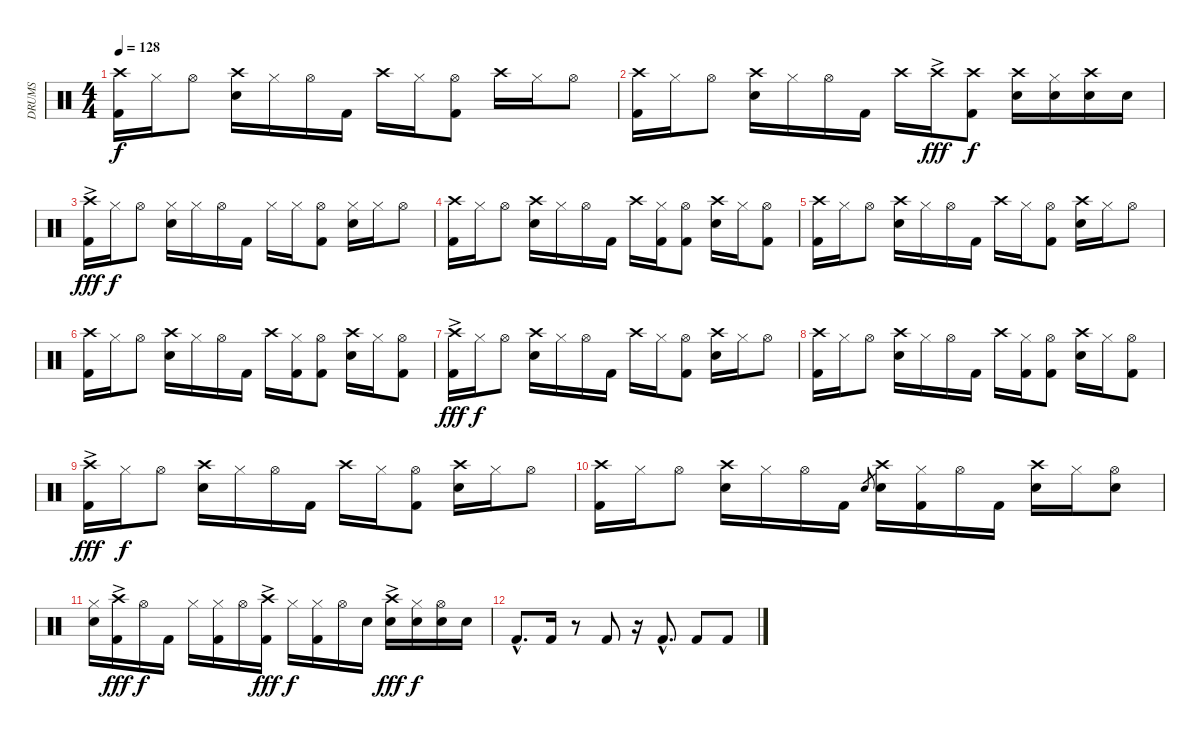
\track ("DRUMS" "DRUMS") {instrument percussion}
\staff {score}
\articulation defaults
\ts (4 4)
\tempo 128
\clef neutral
\ks c
("Crash high (hit)" "Kick (hit) 2").16{dy f} "Hi-Hat (closed)".16 "Hi-Hat (open)".8 ("Crash high (hit)" "Snare (hit) 2").16 "Hi-Hat (closed)".16 "Hi-Hat (open)".16 "Kick (hit) 2".16 "Crash high (hit)".16 "Hi-Hat (closed)".16 ("Hi-Hat (open)" "Kick (hit) 2").8 "Crash high (hit)".16 "Hi-Hat (closed)".16 "Hi-Hat (open)".8 |
("Crash high (hit)" "Kick (hit) 2").16 "Hi-Hat (closed)".16 "Hi-Hat (open)".8 ("Crash high (hit)" "Snare (hit) 2").16 "Hi-Hat (closed)".16 "Hi-Hat (open)".16 "Kick (hit) 2".16 "Crash high (hit)".16 "Crash high (hit)"{ac}.16{dy fff} ("Crash high (hit)" "Kick (hit) 2").8{dy f} ("Crash high (hit)" "Snare (hit) 2").16 ("Hi-Hat (closed)" "Snare (hit) 2").16 ("Crash high (hit)" "Snare (hit) 2").16 "Snare (hit) 2".16 |
("Crash high (hit)"{ac} "Kick (hit) 2").16{dy fff} "Hi-Hat (closed)".16{dy f} "Hi-Hat (open)".8 ("Hi-Hat (closed)" "Snare (hit) 2").16 "Hi-Hat (closed)".16 "Hi-Hat (open)".16 "Kick (hit) 2".16 "Hi-Hat (closed)".16 "Hi-Hat (closed)".16 ("Hi-Hat (open)" "Kick (hit) 2").8 ("Hi-Hat (closed)" "Snare (hit) 2").16 "Hi-Hat (closed)".16 "Hi-Hat (open)".8 |
("Crash high (hit)" "Kick (hit) 2").16 "Hi-Hat (closed)".16 "Hi-Hat (open)".8 ("Crash high (hit)" "Snare (hit) 2").16 "Hi-Hat (closed)".16 "Hi-Hat (open)".16 "Kick (hit) 2".16 "Crash high (hit)".16 ("Hi-Hat (closed)" "Kick (hit) 2").16 ("Hi-Hat (open)" "Kick (hit) 2").8 ("Crash high (hit)" "Snare (hit) 2").16 "Hi-Hat (closed)".16 ("Hi-Hat (open)" "Kick (hit) 2").8 |
("Crash high (hit)" "Kick (hit) 2").16 "Hi-Hat (closed)".16 "Hi-Hat (open)".8 ("Crash high (hit)" "Snare (hit) 2").16 "Hi-Hat (closed)".16 "Hi-Hat (open)".16 "Kick (hit) 2".16 "Crash high (hit)".16 "Hi-Hat (closed)".16 ("Hi-Hat (open)" "Kick (hit) 2").8 ("Crash high (hit)" "Snare (hit) 2").16 "Hi-Hat (closed)".16 "Hi-Hat (open)".8 |
("Crash high (hit)" "Kick (hit) 2").16 "Hi-Hat (closed)".16 "Hi-Hat (open)".8 ("Crash high (hit)" "Snare (hit) 2").16 "Hi-Hat (closed)".16 "Hi-Hat (open)".16 "Kick (hit) 2".16 "Crash high (hit)".16 ("Hi-Hat (closed)" "Kick (hit) 2").16 ("Hi-Hat (open)" "Kick (hit) 2").8 ("Crash high (hit)" "Snare (hit) 2").16 "Hi-Hat (closed)".16 ("Hi-Hat (open)" "Kick (hit) 2").8 |
("Crash high (hit)"{ac} "Kick (hit) 2").16{dy fff} "Hi-Hat (closed)".16{dy f} "Hi-Hat (open)".8 ("Crash high (hit)" "Snare (hit) 2").16 "Hi-Hat (closed)".16 "Hi-Hat (open)".16 "Kick (hit) 2".16 "Crash high (hit)".16 "Hi-Hat (closed)".16 ("Hi-Hat (open)" "Kick (hit) 2").8 ("Crash high (hit)" "Snare (hit) 2").16 "Hi-Hat (closed)".16 "Hi-Hat (open)".8 |
("Crash high (hit)" "Kick (hit) 2").16 "Hi-Hat (closed)".16 "Hi-Hat (open)".8 ("Crash high (hit)" "Snare (hit) 2").16 "Hi-Hat (closed)".16 "Hi-Hat (open)".16 "Kick (hit) 2".16 "Crash high (hit)".16 ("Hi-Hat (closed)" "Kick (hit) 2").16 ("Hi-Hat (open)" "Kick (hit) 2").8 ("Crash high (hit)" "Snare (hit) 2").16 "Hi-Hat (closed)".16 ("Hi-Hat (open)" "Kick (hit) 2").8 |
("Crash high (hit)"{ac} "Kick (hit) 2").16{dy fff} "Hi-Hat (closed)".16{dy f} "Hi-Hat (open)".8 ("Crash high (hit)" "Snare (hit) 2").16 "Hi-Hat (closed)".16 "Hi-Hat (open)".16 "Kick (hit) 2".16 "Crash high (hit)".16 "Hi-Hat (closed)".16 ("Hi-Hat (open)" "Kick (hit) 2").8 ("Crash high (hit)" "Snare (hit) 2").16 "Hi-Hat (closed)".16 "Hi-Hat (open)".8 |
("Crash high (hit)" "Kick (hit) 2").16 "Hi-Hat (closed)".16 "Hi-Hat (open)".8 ("Crash high (hit)" "Snare (hit) 2").16 "Hi-Hat (closed)".16 "Hi-Hat (open)".16 "Kick (hit) 2".16 "Snare (hit) 2".8{gr} ("Crash high (hit)" "Snare (hit) 2").16 ("Hi-Hat (closed)" "Kick (hit) 2").16 "Hi-Hat (open)".16 "Kick (hit) 2".16 ("Crash high (hit)" "Snare (hit) 2").16 "Hi-Hat (closed)".16 ("Hi-Hat (open)" "Snare (hit) 2").8 |
("Hi-Hat (closed)" "Snare (hit) 2").16 ("Crash high (hit)"{ac} "Kick (hit) 2").16{dy fff} "Hi-Hat (open)".16{dy f} "Kick (hit) 2".16 "Hi-Hat (closed)".16 ("Hi-Hat (closed)" "Kick (hit) 2").16 "Hi-Hat (open)".16 ("Crash high (hit)"{ac} "Kick (hit) 2").16{dy fff} "Hi-Hat (closed)".16{dy f} ("Hi-Hat (closed)" "Kick (hit) 2").16 "Hi-Hat (open)".16 "Snare (hit) 2".16 ("Crash high (hit)"{ac} "Snare (hit) 2").16{dy fff} ("Hi-Hat (closed)" "Snare (hit) 2").16{dy f} ("Hi-Hat (open)" "Snare (hit) 2").16 "Snare (hit) 2".16 |
"Kick (hit) 2"{hac}.8{d} "Kick (hit) 2".16 r.8 "Kick (hit) 2".8 r.16 "Kick (hit) 2"{hac}.8{d} "Kick (hit) 2".8 "Kick (hit) 2".8
